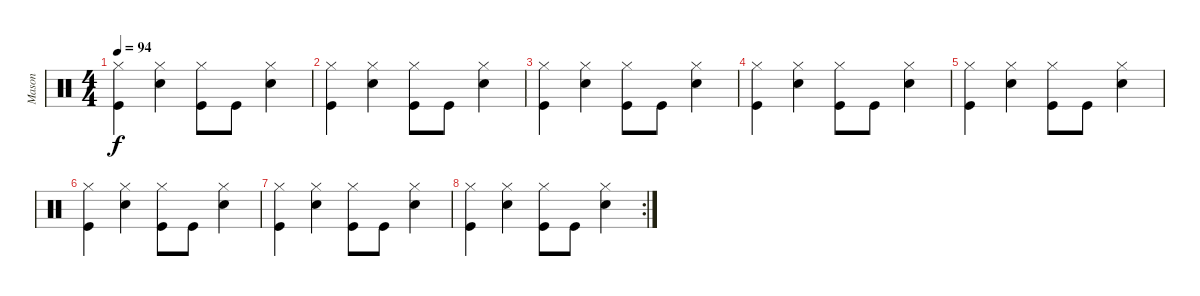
\track ("Mason" "Mason") {instrument percussion}
\staff {score}
\articulation defaults
\ts (4 4)
\tempo 94
\clef neutral
\ks c
("Kick (hit)" "Hi-Hat (closed)").4{dy f} ("Snare (hit) 2" "Hi-Hat (closed)").4 ("Kick (hit)" "Hi-Hat (closed)").8 "Kick (hit)".8 ("Snare (hit) 2" "Hi-Hat (closed)").4 |
("Kick (hit)" "Hi-Hat (closed)").4 ("Snare (hit) 2" "Hi-Hat (closed)").4 ("Kick (hit)" "Hi-Hat (closed)").8 "Kick (hit)".8 ("Snare (hit) 2" "Hi-Hat (closed)").4 |
("Kick (hit)" "Hi-Hat (closed)").4 ("Snare (hit) 2" "Hi-Hat (closed)").4 ("Kick (hit)" "Hi-Hat (closed)").8 "Kick (hit)".8 ("Snare (hit) 2" "Hi-Hat (closed)").4 |
("Kick (hit)" "Hi-Hat (closed)").4 ("Snare (hit) 2" "Hi-Hat (closed)").4 ("Kick (hit)" "Hi-Hat (closed)").8 "Kick (hit)".8 ("Snare (hit) 2" "Hi-Hat (closed)").4 |
("Kick (hit)" "Hi-Hat (closed)").4 ("Snare (hit) 2" "Hi-Hat (closed)").4 ("Kick (hit)" "Hi-Hat (closed)").8 "Kick (hit)".8 ("Snare (hit) 2" "Hi-Hat (closed)").4 |
("Kick (hit)" "Hi-Hat (closed)").4 ("Snare (hit) 2" "Hi-Hat (closed)").4 ("Kick (hit)" "Hi-Hat (closed)").8 "Kick (hit)".8 ("Snare (hit) 2" "Hi-Hat (closed)").4 |
("Kick (hit)" "Hi-Hat (closed)").4 ("Snare (hit) 2" "Hi-Hat (closed)").4 ("Kick (hit)" "Hi-Hat (closed)").8 "Kick (hit)".8 ("Snare (hit) 2" "Hi-Hat (closed)").4 |
\rc 2
("Kick (hit)" "Hi-Hat (closed)").4 ("Snare (hit) 2" "Hi-Hat (closed)").4 ("Kick (hit)" "Hi-Hat (closed)").8 "Kick (hit)".8 ("Snare (hit) 2" "Hi-Hat (closed)").4
